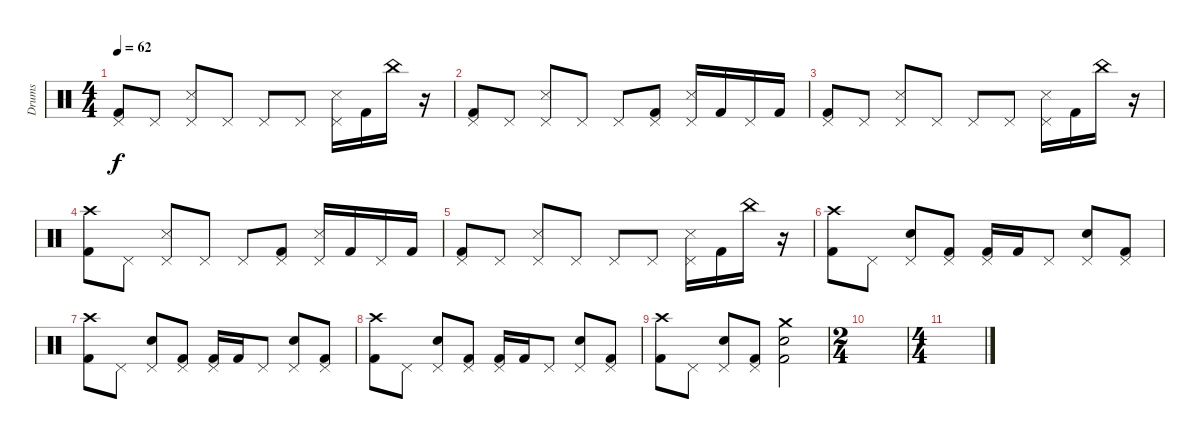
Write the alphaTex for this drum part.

\track ("Drums" "Drums") {instrument percussion}
\staff {score}
\articulation defaults
\ts (4 4)
\tempo 62
\clef neutral
\ks c
("Pedal Hi-Hat (hit)" "Kick (hit) 2").8{dy f} "Pedal Hi-Hat (hit)".8 ("Pedal Hi-Hat (hit)" "Snare (side stick) 3").8 "Pedal Hi-Hat (hit)".8 "Pedal Hi-Hat (hit)".8 "Pedal Hi-Hat (hit)".8 ("Pedal Hi-Hat (hit)" "Snare (side stick) 3").16 "Kick (hit) 2".16 "China (hit)".16 r.16 |
("Pedal Hi-Hat (hit)" "Kick (hit) 2").8 "Pedal Hi-Hat (hit)".8 ("Pedal Hi-Hat (hit)" "Snare (side stick) 3").8 "Pedal Hi-Hat (hit)".8 "Pedal Hi-Hat (hit)".8 ("Pedal Hi-Hat (hit)" "Kick (hit) 2").8 ("Pedal Hi-Hat (hit)" "Snare (side stick) 3").16 "Kick (hit) 2".16 "Pedal Hi-Hat (hit)".16 "Kick (hit) 2".16 |
("Pedal Hi-Hat (hit)" "Kick (hit) 2").8 "Pedal Hi-Hat (hit)".8 ("Pedal Hi-Hat (hit)" "Snare (side stick) 3").8 "Pedal Hi-Hat (hit)".8 "Pedal Hi-Hat (hit)".8 "Pedal Hi-Hat (hit)".8 ("Pedal Hi-Hat (hit)" "Snare (side stick) 3").16 "Kick (hit) 2".16 "China (hit)".16 r.16 |
("Crash high (hit)" "Kick (hit) 2").8 "Pedal Hi-Hat (hit)".8 ("Pedal Hi-Hat (hit)" "Snare (side stick) 3").8 "Pedal Hi-Hat (hit)".8 "Pedal Hi-Hat (hit)".8 ("Pedal Hi-Hat (hit)" "Kick (hit) 2").8 ("Pedal Hi-Hat (hit)" "Snare (side stick) 3").16 "Kick (hit) 2".16 "Pedal Hi-Hat (hit)".16 "Kick (hit) 2".16 |
("Pedal Hi-Hat (hit)" "Kick (hit) 2").8 "Pedal Hi-Hat (hit)".8 ("Pedal Hi-Hat (hit)" "Snare (side stick) 3").8 "Pedal Hi-Hat (hit)".8 "Pedal Hi-Hat (hit)".8 "Pedal Hi-Hat (hit)".8 ("Pedal Hi-Hat (hit)" "Snare (side stick) 3").16 "Kick (hit) 2".16 "China (hit)".16 r.16 |
("Crash high (hit)" "Kick (hit) 2").8 "Pedal Hi-Hat (hit)".8 ("Pedal Hi-Hat (hit)" "Snare (hit) 2").8 ("Pedal Hi-Hat (hit)" "Kick (hit) 2").8 ("Pedal Hi-Hat (hit)" "Kick (hit) 2").16 "Kick (hit) 2".16 "Pedal Hi-Hat (hit)".8 ("Pedal Hi-Hat (hit)" "Snare (hit) 2").8 ("Pedal Hi-Hat (hit)" "Kick (hit) 2").8 |
("Crash high (hit)" "Kick (hit) 2").8 "Pedal Hi-Hat (hit)".8 ("Pedal Hi-Hat (hit)" "Snare (hit) 2").8 ("Pedal Hi-Hat (hit)" "Kick (hit) 2").8 ("Pedal Hi-Hat (hit)" "Kick (hit) 2").16 "Kick (hit) 2".16 "Pedal Hi-Hat (hit)".8 ("Pedal Hi-Hat (hit)" "Snare (hit) 2").8 ("Pedal Hi-Hat (hit)" "Kick (hit) 2").8 |
("Crash high (hit)" "Kick (hit) 2").8 "Pedal Hi-Hat (hit)".8 ("Pedal Hi-Hat (hit)" "Snare (hit) 2").8 ("Pedal Hi-Hat (hit)" "Kick (hit) 2").8 ("Pedal Hi-Hat (hit)" "Kick (hit) 2").16 "Kick (hit) 2".16 "Pedal Hi-Hat (hit)".8 ("Pedal Hi-Hat (hit)" "Snare (hit) 2").8 ("Pedal Hi-Hat (hit)" "Kick (hit) 2").8 |
("Crash high (hit)" "Kick (hit) 2").8 "Pedal Hi-Hat (hit)".8 ("Pedal Hi-Hat (hit)" "Snare (hit) 2").8 ("Pedal Hi-Hat (hit)" "Kick (hit) 2").8 ("Crash medium (hit)" "Snare (hit) 2" "Kick (hit) 2").2 |
\ts (2 4)
|
\ts (4 4)
